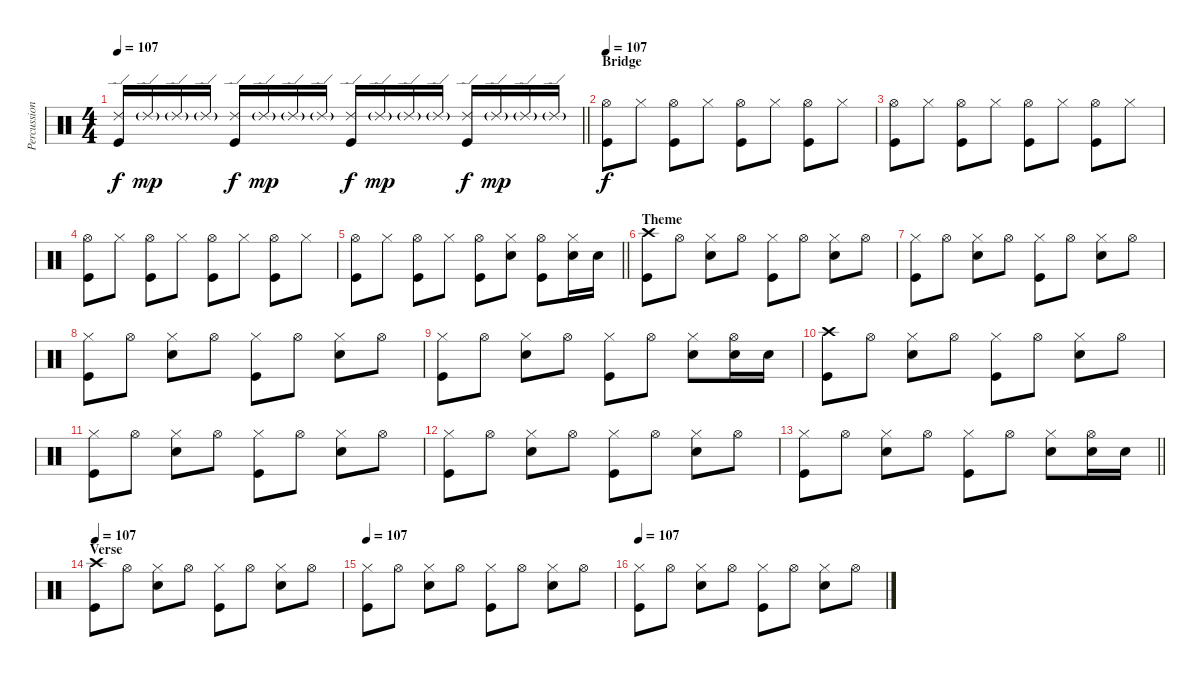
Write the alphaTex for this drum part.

\track ("Percussion" "Percussion") {instrument percussion}
\staff {score}
\articulation defaults
\ts (4 4)
\tempo 107
\clef neutral
\barLineRight lightlight
\ks c
("Ride (edge) 2" "Kick (hit)").16{dy f} "Ride (edge) 2"{g}.16{dy mp} "Ride (edge) 2"{g}.16 "Ride (edge) 2"{g}.16 ("Ride (edge) 2" "Kick (hit)").16{dy f} "Ride (edge) 2"{g}.16{dy mp} "Ride (edge) 2"{g}.16 "Ride (edge) 2"{g}.16 ("Ride (edge) 2" "Kick (hit)").16{dy f} "Ride (edge) 2"{g}.16{dy mp} "Ride (edge) 2"{g}.16 "Ride (edge) 2"{g}.16 ("Ride (edge) 2" "Kick (hit)").16{dy f} "Ride (edge) 2"{g}.16{dy mp} "Ride (edge) 2"{g}.16 "Ride (edge) 2"{g}.16 |
\section ("" "Bridge")
\tempo 107
("Hi-Hat (open)" "Kick (hit)").8{dy f} "Hi-Hat (closed)".8 ("Hi-Hat (open)" "Kick (hit)").8 "Hi-Hat (closed)".8 ("Hi-Hat (open)" "Kick (hit)").8 "Hi-Hat (closed)".8 ("Hi-Hat (open)" "Kick (hit)").8 "Hi-Hat (closed)".8 |
("Hi-Hat (open)" "Kick (hit)").8 "Hi-Hat (closed)".8 ("Hi-Hat (open)" "Kick (hit)").8 "Hi-Hat (closed)".8 ("Hi-Hat (open)" "Kick (hit)").8 "Hi-Hat (closed)".8 ("Hi-Hat (open)" "Kick (hit)").8 "Hi-Hat (closed)".8 |
("Hi-Hat (open)" "Kick (hit)").8 "Hi-Hat (closed)".8 ("Hi-Hat (open)" "Kick (hit)").8 "Hi-Hat (closed)".8 ("Hi-Hat (open)" "Kick (hit)").8 "Hi-Hat (closed)".8 ("Hi-Hat (open)" "Kick (hit)").8 "Hi-Hat (closed)".8 |
\barLineRight lightlight
("Hi-Hat (open)" "Kick (hit)").8 "Hi-Hat (closed)".8 ("Hi-Hat (open)" "Kick (hit)").8 "Hi-Hat (closed)".8 ("Hi-Hat (open)" "Kick (hit)").8 ("Hi-Hat (closed)" "Snare (hit) 2").8 ("Hi-Hat (open)" "Kick (hit)").8 ("Hi-Hat (closed)" "Snare (hit) 2").16 "Snare (hit) 2".16 |
\section ("" "Theme")
("Crash high (hit)" "Kick (hit)").8 "Hi-Hat (open)".8 ("Hi-Hat (closed)" "Snare (hit) 2").8 "Hi-Hat (open)".8 ("Hi-Hat (closed)" "Kick (hit)").8 "Hi-Hat (open)".8 ("Hi-Hat (closed)" "Snare (hit) 2").8 "Hi-Hat (open)".8 |
("Hi-Hat (closed)" "Kick (hit)").8 "Hi-Hat (open)".8 ("Hi-Hat (closed)" "Snare (hit) 2").8 "Hi-Hat (open)".8 ("Hi-Hat (closed)" "Kick (hit)").8 "Hi-Hat (open)".8 ("Hi-Hat (closed)" "Snare (hit) 2").8 "Hi-Hat (open)".8 |
("Hi-Hat (closed)" "Kick (hit)").8 "Hi-Hat (open)".8 ("Hi-Hat (closed)" "Snare (hit) 2").8 "Hi-Hat (open)".8 ("Hi-Hat (closed)" "Kick (hit)").8 "Hi-Hat (open)".8 ("Hi-Hat (closed)" "Snare (hit) 2").8 "Hi-Hat (open)".8 |
("Hi-Hat (closed)" "Kick (hit)").8 "Hi-Hat (open)".8 ("Hi-Hat (closed)" "Snare (hit) 2").8 "Hi-Hat (open)".8 ("Hi-Hat (closed)" "Kick (hit)").8 "Hi-Hat (open)".8 ("Hi-Hat (closed)" "Snare (hit) 2").8 ("Hi-Hat (open)" "Snare (hit) 2").16 "Snare (hit) 2".16 |
("Crash high (hit)" "Kick (hit)").8 "Hi-Hat (open)".8 ("Hi-Hat (closed)" "Snare (hit) 2").8 "Hi-Hat (open)".8 ("Hi-Hat (closed)" "Kick (hit)").8 "Hi-Hat (open)".8 ("Hi-Hat (closed)" "Snare (hit) 2").8 "Hi-Hat (open)".8 |
("Hi-Hat (closed)" "Kick (hit)").8 "Hi-Hat (open)".8 ("Hi-Hat (closed)" "Snare (hit) 2").8 "Hi-Hat (open)".8 ("Hi-Hat (closed)" "Kick (hit)").8 "Hi-Hat (open)".8 ("Hi-Hat (closed)" "Snare (hit) 2").8 "Hi-Hat (open)".8 |
("Hi-Hat (closed)" "Kick (hit)").8 "Hi-Hat (open)".8 ("Hi-Hat (closed)" "Snare (hit) 2").8 "Hi-Hat (open)".8 ("Hi-Hat (closed)" "Kick (hit)").8 "Hi-Hat (open)".8 ("Hi-Hat (closed)" "Snare (hit) 2").8 "Hi-Hat (open)".8 |
\barLineRight lightlight
("Hi-Hat (closed)" "Kick (hit)").8 "Hi-Hat (open)".8 ("Hi-Hat (closed)" "Snare (hit) 2").8 "Hi-Hat (open)".8 ("Hi-Hat (closed)" "Kick (hit)").8 "Hi-Hat (open)".8 ("Hi-Hat (closed)" "Snare (hit) 2").8 ("Hi-Hat (open)" "Snare (hit) 2").16 "Snare (hit) 2".16 |
\section ("" "Verse")
\tempo 107
("Crash high (hit)" "Kick (hit)").8 "Hi-Hat (open)".8 ("Hi-Hat (closed)" "Snare (hit) 2").8 "Hi-Hat (open)".8 ("Hi-Hat (closed)" "Kick (hit)").8 "Hi-Hat (open)".8 ("Hi-Hat (closed)" "Snare (hit) 2").8 "Hi-Hat (open)".8 |
\tempo 107
("Hi-Hat (closed)" "Kick (hit)").8 "Hi-Hat (open)".8 ("Hi-Hat (closed)" "Snare (hit) 2").8 "Hi-Hat (open)".8 ("Hi-Hat (closed)" "Kick (hit)").8 "Hi-Hat (open)".8 ("Hi-Hat (closed)" "Snare (hit) 2").8 "Hi-Hat (open)".8 |
\tempo 107
("Hi-Hat (closed)" "Kick (hit)").8 "Hi-Hat (open)".8 ("Hi-Hat (closed)" "Snare (hit) 2").8 "Hi-Hat (open)".8 ("Hi-Hat (closed)" "Kick (hit)").8 "Hi-Hat (open)".8 ("Hi-Hat (closed)" "Snare (hit) 2").8 "Hi-Hat (open)".8
